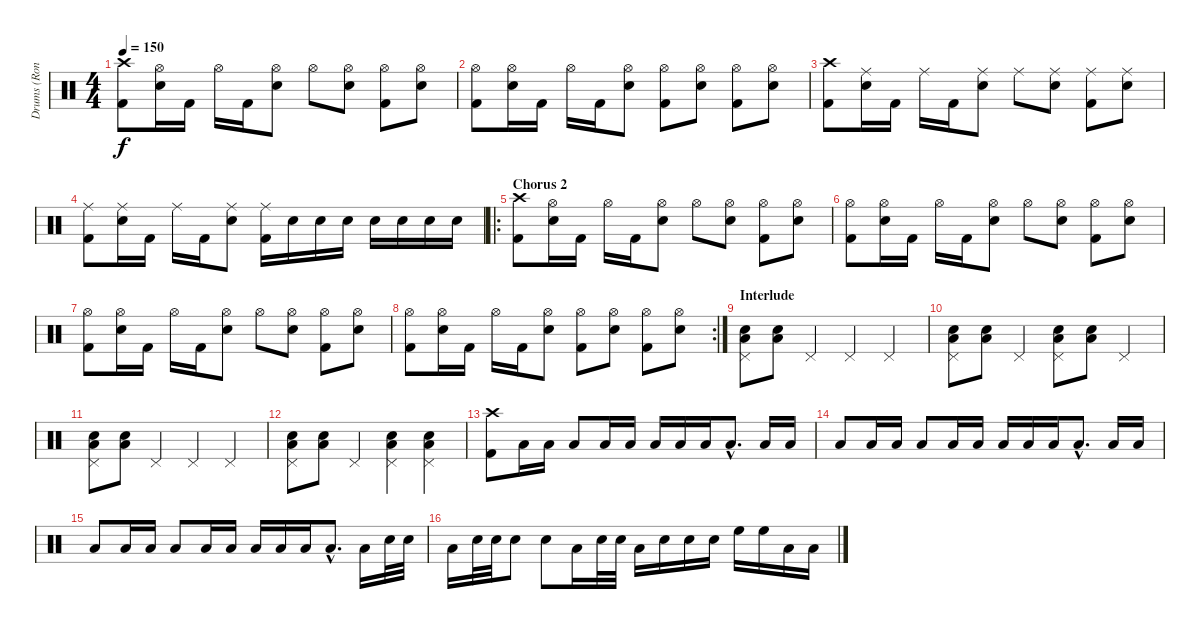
\track ("Drums (Ron Welty)" "Drums (Ron") {instrument percussion}
\staff {score}
\articulation defaults
\ts (4 4)
\tempo 150
\clef neutral
\ks c
("Crash high (hit)" "Kick (hit) 2").8{dy f} ("Hi-Hat (open)" "Electric Snare (hit)").16 "Kick (hit) 2".16 "Hi-Hat (open)".16 "Kick (hit) 2".16 ("Hi-Hat (open)" "Electric Snare (hit)").8 "Hi-Hat (open)".8 ("Hi-Hat (open)" "Electric Snare (hit)").8 ("Hi-Hat (open)" "Kick (hit) 2").8 ("Hi-Hat (open)" "Electric Snare (hit)").8 |
("Hi-Hat (open)" "Kick (hit) 2").8 ("Hi-Hat (open)" "Electric Snare (hit)").16 "Kick (hit) 2".16 "Hi-Hat (open)".16 "Kick (hit) 2".16 ("Hi-Hat (open)" "Electric Snare (hit)").8 ("Hi-Hat (open)" "Kick (hit) 2").8 ("Hi-Hat (open)" "Electric Snare (hit)").8 ("Hi-Hat (open)" "Kick (hit) 2").8 ("Hi-Hat (open)" "Electric Snare (hit)").8 |
("Crash high (hit)" "Kick (hit) 2").8 ("Ride (middle)" "Electric Snare (hit)").16 "Kick (hit) 2".16 "Ride (middle)".16 "Kick (hit) 2".16 ("Ride (middle)" "Electric Snare (hit)").8 "Ride (middle)".8 ("Ride (middle)" "Electric Snare (hit)").8 ("Ride (middle)" "Kick (hit) 2").8 ("Ride (middle)" "Electric Snare (hit)").8 |
("Ride (middle)" "Kick (hit) 2").8 ("Ride (middle)" "Electric Snare (hit)").16 "Kick (hit) 2".16 "Ride (middle)".16 "Kick (hit) 2".16 ("Ride (middle)" "Electric Snare (hit)").8 ("Ride (middle)" "Kick (hit) 2").16 "Electric Snare (hit)".16 "Electric Snare (hit)".16 "Electric Snare (hit)".16 "Electric Snare (hit)".16 "Electric Snare (hit)".16 "Electric Snare (hit)".16 "Electric Snare (hit)".16 |
\ro
\section ("" "Chorus 2")
("Crash high (hit)" "Kick (hit) 2").8 ("Hi-Hat (open)" "Electric Snare (hit)").16 "Kick (hit) 2".16 "Hi-Hat (open)".16 "Kick (hit) 2".16 ("Hi-Hat (open)" "Electric Snare (hit)").8 "Hi-Hat (open)".8 ("Hi-Hat (open)" "Electric Snare (hit)").8 ("Hi-Hat (open)" "Kick (hit) 2").8 ("Hi-Hat (open)" "Electric Snare (hit)").8 |
("Hi-Hat (open)" "Kick (hit) 2").8 ("Hi-Hat (open)" "Electric Snare (hit)").16 "Kick (hit) 2".16 "Hi-Hat (open)".16 "Kick (hit) 2".16 ("Hi-Hat (open)" "Electric Snare (hit)").8 "Hi-Hat (open)".8 ("Hi-Hat (open)" "Electric Snare (hit)").8 ("Hi-Hat (open)" "Kick (hit) 2").8 ("Hi-Hat (open)" "Electric Snare (hit)").8 |
("Hi-Hat (open)" "Kick (hit) 2").8 ("Hi-Hat (open)" "Electric Snare (hit)").16 "Kick (hit) 2".16 "Hi-Hat (open)".16 "Kick (hit) 2".16 ("Hi-Hat (open)" "Electric Snare (hit)").8 "Hi-Hat (open)".8 ("Hi-Hat (open)" "Electric Snare (hit)").8 ("Hi-Hat (open)" "Kick (hit) 2").8 ("Hi-Hat (open)" "Electric Snare (hit)").8 |
\rc 2
("Hi-Hat (open)" "Kick (hit) 2").8 ("Hi-Hat (open)" "Electric Snare (hit)").16 "Kick (hit) 2".16 "Hi-Hat (open)".16 "Kick (hit) 2".16 ("Hi-Hat (open)" "Electric Snare (hit)").8 ("Hi-Hat (open)" "Kick (hit) 2").8 ("Hi-Hat (open)" "Electric Snare (hit)").8 ("Hi-Hat (open)" "Kick (hit) 2").8 ("Hi-Hat (open)" "Electric Snare (hit)").8 |
\section ("" "Interlude")
("Pedal Hi-Hat (hit)" "Electric Snare (hit)" "Low Floor Tom (hit)").8 ("Electric Snare (hit)" "Low Floor Tom (hit)").8 "Pedal Hi-Hat (hit)".4 "Pedal Hi-Hat (hit)".4 "Pedal Hi-Hat (hit)".4 |
("Pedal Hi-Hat (hit)" "Electric Snare (hit)" "Low Floor Tom (hit)").8 ("Electric Snare (hit)" "Low Floor Tom (hit)").8 "Pedal Hi-Hat (hit)".4 ("Pedal Hi-Hat (hit)" "Electric Snare (hit)" "Low Floor Tom (hit)").8 ("Electric Snare (hit)" "Low Floor Tom (hit)").8 "Pedal Hi-Hat (hit)".4 |
("Pedal Hi-Hat (hit)" "Electric Snare (hit)" "Low Floor Tom (hit)").8 ("Electric Snare (hit)" "Low Floor Tom (hit)").8 "Pedal Hi-Hat (hit)".4 "Pedal Hi-Hat (hit)".4 "Pedal Hi-Hat (hit)".4 |
("Pedal Hi-Hat (hit)" "Electric Snare (hit)" "Low Floor Tom (hit)").8 ("Electric Snare (hit)" "Low Floor Tom (hit)").8 "Pedal Hi-Hat (hit)".4 ("Pedal Hi-Hat (hit)" "Electric Snare (hit)" "Low Floor Tom (hit)").4 ("Pedal Hi-Hat (hit)" "Electric Snare (hit)" "Low Floor Tom (hit)").4 |
("Crash high (hit)" "Kick (hit) 2").8 "Low Floor Tom (hit)".16 "Low Floor Tom (hit)".16 "Low Floor Tom (hit)".8 "Low Floor Tom (hit)".16 "Low Floor Tom (hit)".16 "Low Floor Tom (hit)".16 "Low Floor Tom (hit)".16 "Low Floor Tom (hit)".16 "Low Floor Tom (hit)"{hac}.8{d} "Low Floor Tom (hit)".16 "Low Floor Tom (hit)".16 |
"Low Floor Tom (hit)".8 "Low Floor Tom (hit)".16 "Low Floor Tom (hit)".16 "Low Floor Tom (hit)".8 "Low Floor Tom (hit)".16 "Low Floor Tom (hit)".16 "Low Floor Tom (hit)".16 "Low Floor Tom (hit)".16 "Low Floor Tom (hit)".16 "Low Floor Tom (hit)"{hac}.8{d} "Low Floor Tom (hit)".16 "Low Floor Tom (hit)".16 |
"Low Floor Tom (hit)".8 "Low Floor Tom (hit)".16 "Low Floor Tom (hit)".16 "Low Floor Tom (hit)".8 "Low Floor Tom (hit)".16 "Low Floor Tom (hit)".16 "Low Floor Tom (hit)".16 "Low Floor Tom (hit)".16 "Low Floor Tom (hit)".16 "Low Floor Tom (hit)"{hac}.8{d} "Low Floor Tom (hit)".16 "Electric Snare (hit)".32 "Electric Snare (hit)".32 |
"Low Floor Tom (hit)".16 "Electric Snare (hit)".32 "Electric Snare (hit)".32 "Electric Snare (hit)".8 "Electric Snare (hit)".8 "Low Floor Tom (hit)".16 "Electric Snare (hit)".32 "Electric Snare (hit)".32 "Low Floor Tom (hit)".16 "Electric Snare (hit)".16 "Electric Snare (hit)".16 "Electric Snare (hit)".16 "High Floor Tom (hit)".16 "High Floor Tom (hit)".16 "Low Tom (hit)".16 "Low Tom (hit)".16
